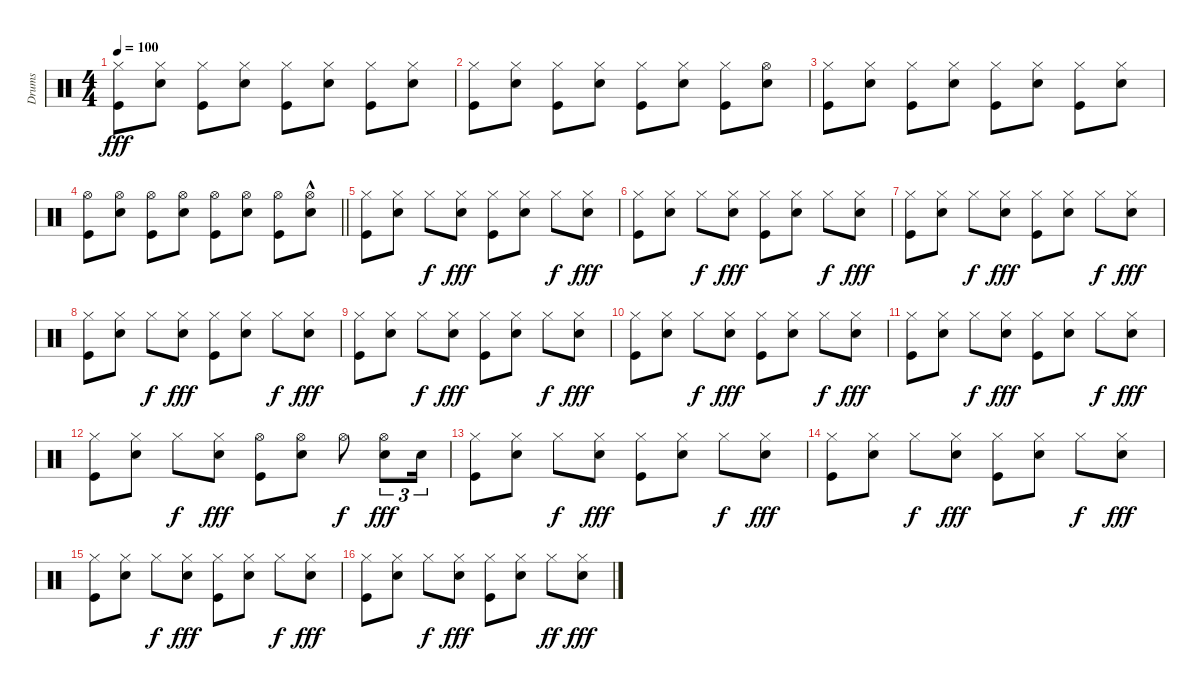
\track ("Drums" "Drums") {instrument percussion}
\staff {score}
\articulation defaults
\ts (4 4)
\tempo 100
\clef neutral
\ks c
("Hi-Hat (closed)" "Kick (hit)").8{dy fff} ("Hi-Hat (closed)" "Snare (hit) 2").8 ("Hi-Hat (closed)" "Kick (hit)").8 ("Hi-Hat (closed)" "Snare (hit) 2").8 ("Hi-Hat (closed)" "Kick (hit)").8 ("Hi-Hat (closed)" "Snare (hit) 2").8 ("Hi-Hat (closed)" "Kick (hit)").8 ("Hi-Hat (closed)" "Snare (hit) 2").8 |
("Hi-Hat (closed)" "Kick (hit)").8 ("Hi-Hat (closed)" "Snare (hit) 2").8 ("Hi-Hat (closed)" "Kick (hit)").8 ("Hi-Hat (closed)" "Snare (hit) 2").8 ("Hi-Hat (closed)" "Kick (hit)").8 ("Hi-Hat (closed)" "Snare (hit) 2").8 ("Hi-Hat (closed)" "Kick (hit)").8 ("Hi-Hat (open)" "Snare (hit) 2").8 |
("Hi-Hat (closed)" "Kick (hit)").8 ("Hi-Hat (closed)" "Snare (hit) 2").8 ("Hi-Hat (closed)" "Kick (hit)").8 ("Hi-Hat (closed)" "Snare (hit) 2").8 ("Hi-Hat (closed)" "Kick (hit)").8 ("Hi-Hat (closed)" "Snare (hit) 2").8 ("Hi-Hat (closed)" "Kick (hit)").8 ("Hi-Hat (closed)" "Snare (hit) 2").8 |
\barLineRight lightlight
("Hi-Hat (open)" "Kick (hit)").8 ("Hi-Hat (open)" "Snare (hit) 2").8 ("Hi-Hat (open)" "Kick (hit)").8 ("Hi-Hat (open)" "Snare (hit) 2").8 ("Hi-Hat (open)" "Kick (hit)").8 ("Hi-Hat (open)" "Snare (hit) 2").8 ("Hi-Hat (open)" "Kick (hit)").8 ("Hi-Hat (open)"{hac} "Snare (hit) 2").8 |
("Hi-Hat (closed)" "Kick (hit)").8 ("Hi-Hat (closed)" "Snare (hit) 2").8 "Hi-Hat (closed)".8{dy f} ("Hi-Hat (closed)" "Snare (hit) 2").8{dy fff} ("Hi-Hat (closed)" "Kick (hit)").8 ("Hi-Hat (closed)" "Snare (hit) 2").8 "Hi-Hat (closed)".8{dy f} ("Hi-Hat (closed)" "Snare (hit) 2").8{dy fff} |
("Hi-Hat (closed)" "Kick (hit)").8 ("Hi-Hat (closed)" "Snare (hit) 2").8 "Hi-Hat (closed)".8{dy f} ("Hi-Hat (closed)" "Snare (hit) 2").8{dy fff} ("Hi-Hat (closed)" "Kick (hit)").8 ("Hi-Hat (closed)" "Snare (hit) 2").8 "Hi-Hat (closed)".8{dy f} ("Hi-Hat (closed)" "Snare (hit) 2").8{dy fff} |
("Hi-Hat (closed)" "Kick (hit)").8 ("Hi-Hat (closed)" "Snare (hit) 2").8 "Hi-Hat (closed)".8{dy f} ("Hi-Hat (closed)" "Snare (hit) 2").8{dy fff} ("Hi-Hat (closed)" "Kick (hit)").8 ("Hi-Hat (closed)" "Snare (hit) 2").8 "Hi-Hat (closed)".8{dy f} ("Hi-Hat (closed)" "Snare (hit) 2").8{dy fff} |
("Hi-Hat (closed)" "Kick (hit)").8 ("Hi-Hat (closed)" "Snare (hit) 2").8 "Hi-Hat (closed)".8{dy f} ("Hi-Hat (closed)" "Snare (hit) 2").8{dy fff} ("Hi-Hat (closed)" "Kick (hit)").8 ("Hi-Hat (closed)" "Snare (hit) 2").8 "Hi-Hat (closed)".8{dy f} ("Hi-Hat (closed)" "Snare (hit) 2").8{dy fff} |
("Hi-Hat (closed)" "Kick (hit)").8 ("Hi-Hat (closed)" "Snare (hit) 2").8 "Hi-Hat (closed)".8{dy f} ("Hi-Hat (closed)" "Snare (hit) 2").8{dy fff} ("Hi-Hat (closed)" "Kick (hit)").8 ("Hi-Hat (closed)" "Snare (hit) 2").8 "Hi-Hat (closed)".8{dy f} ("Hi-Hat (closed)" "Snare (hit) 2").8{dy fff} |
("Hi-Hat (closed)" "Kick (hit)").8 ("Hi-Hat (closed)" "Snare (hit) 2").8 "Hi-Hat (closed)".8{dy f} ("Hi-Hat (closed)" "Snare (hit) 2").8{dy fff} ("Hi-Hat (closed)" "Kick (hit)").8 ("Hi-Hat (closed)" "Snare (hit) 2").8 "Hi-Hat (closed)".8{dy f} ("Hi-Hat (closed)" "Snare (hit) 2").8{dy fff} |
("Hi-Hat (closed)" "Kick (hit)").8 ("Hi-Hat (closed)" "Snare (hit) 2").8 "Hi-Hat (closed)".8{dy f} ("Hi-Hat (closed)" "Snare (hit) 2").8{dy fff} ("Hi-Hat (closed)" "Kick (hit)").8 ("Hi-Hat (closed)" "Snare (hit) 2").8 "Hi-Hat (closed)".8{dy f} ("Hi-Hat (closed)" "Snare (hit) 2").8{dy fff} |
("Hi-Hat (closed)" "Kick (hit)").8 ("Hi-Hat (closed)" "Snare (hit) 2").8 "Hi-Hat (closed)".8{dy f} ("Hi-Hat (closed)" "Snare (hit) 2").8{dy fff} ("Hi-Hat (open)" "Kick (hit)").8 ("Hi-Hat (open)" "Snare (hit) 2").8 "Hi-Hat (open)".8{dy f} ("Hi-Hat (open)" "Snare (hit) 2").8{tu (3 2) dy fff} "Snare (hit) 2".16{tu (3 2)} |
("Hi-Hat (closed)" "Kick (hit)").8 ("Hi-Hat (closed)" "Snare (hit) 2").8 "Hi-Hat (closed)".8{dy f} ("Hi-Hat (closed)" "Snare (hit) 2").8{dy fff} ("Hi-Hat (closed)" "Kick (hit)").8 ("Hi-Hat (closed)" "Snare (hit) 2").8 "Hi-Hat (closed)".8{dy f} ("Hi-Hat (closed)" "Snare (hit) 2").8{dy fff} |
("Hi-Hat (closed)" "Kick (hit)").8 ("Hi-Hat (closed)" "Snare (hit) 2").8 "Hi-Hat (closed)".8{dy f} ("Hi-Hat (closed)" "Snare (hit) 2").8{dy fff} ("Hi-Hat (closed)" "Kick (hit)").8 ("Hi-Hat (closed)" "Snare (hit) 2").8 "Hi-Hat (closed)".8{dy f} ("Hi-Hat (closed)" "Snare (hit) 2").8{dy fff} |
("Hi-Hat (closed)" "Kick (hit)").8 ("Hi-Hat (closed)" "Snare (hit) 2").8 "Hi-Hat (closed)".8{dy f} ("Hi-Hat (closed)" "Snare (hit) 2").8{dy fff} ("Hi-Hat (closed)" "Kick (hit)").8 ("Hi-Hat (closed)" "Snare (hit) 2").8 "Hi-Hat (closed)".8{dy f} ("Hi-Hat (closed)" "Snare (hit) 2").8{dy fff} |
("Hi-Hat (closed)" "Kick (hit)").8 ("Hi-Hat (closed)" "Snare (hit) 2").8 "Hi-Hat (closed)".8{dy f} ("Hi-Hat (closed)" "Snare (hit) 2").8{dy fff} ("Hi-Hat (closed)" "Kick (hit)").8 ("Hi-Hat (closed)" "Snare (hit) 2").8 "Hi-Hat (closed)".8{dy ff} ("Hi-Hat (closed)" "Snare (hit) 2").8{dy fff}
